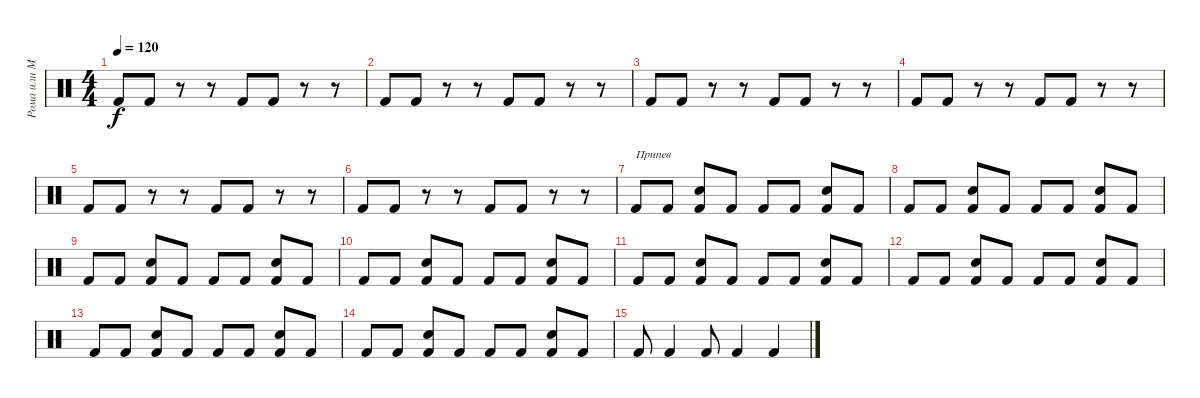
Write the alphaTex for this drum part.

\track ("Рома или Миша" "Рома или М") {instrument percussion}
\staff {score}
\articulation defaults
\ts (4 4)
\tempo 120
\clef neutral
\ks c "Kick (hit) 2".8{dy f} "Kick (hit) 2".8
r.8 r.8 "Kick (hit) 2".8 "Kick (hit) 2".8 r.8 r.8 |
"Kick (hit) 2".8 "Kick (hit) 2".8 r.8 r.8 "Kick (hit) 2".8 "Kick (hit) 2".8 r.8 r.8 |
"Kick (hit) 2".8 "Kick (hit) 2".8 r.8 r.8 "Kick (hit) 2".8 "Kick (hit) 2".8 r.8 r.8 |
"Kick (hit) 2".8 "Kick (hit) 2".8 r.8 r.8 "Kick (hit) 2".8 "Kick (hit) 2".8 r.8 r.8 |
"Kick (hit) 2".8 "Kick (hit) 2".8 r.8 r.8 "Kick (hit) 2".8 "Kick (hit) 2".8 r.8 r.8 |
"Kick (hit) 2".8 "Kick (hit) 2".8 r.8 r.8 "Kick (hit) 2".8 "Kick (hit) 2".8 r.8 r.8 |
"Kick (hit) 2".8{txt "Припев"} "Kick (hit) 2".8 ("Snare (hit) 2" "Kick (hit) 2").8 "Kick (hit) 2".8 "Kick (hit) 2".8 "Kick (hit) 2".8 ("Snare (hit) 2" "Kick (hit) 2").8 "Kick (hit) 2".8 |
"Kick (hit) 2".8 "Kick (hit) 2".8 ("Snare (hit) 2" "Kick (hit) 2").8 "Kick (hit) 2".8 "Kick (hit) 2".8 "Kick (hit) 2".8 ("Snare (hit) 2" "Kick (hit) 2").8 "Kick (hit) 2".8 |
"Kick (hit) 2".8 "Kick (hit) 2".8 ("Snare (hit) 2" "Kick (hit) 2").8 "Kick (hit) 2".8 "Kick (hit) 2".8 "Kick (hit) 2".8 ("Snare (hit) 2" "Kick (hit) 2").8 "Kick (hit) 2".8 |
"Kick (hit) 2".8 "Kick (hit) 2".8 ("Snare (hit) 2" "Kick (hit) 2").8 "Kick (hit) 2".8 "Kick (hit) 2".8 "Kick (hit) 2".8 ("Snare (hit) 2" "Kick (hit) 2").8 "Kick (hit) 2".8 |
"Kick (hit) 2".8 "Kick (hit) 2".8 ("Snare (hit) 2" "Kick (hit) 2").8 "Kick (hit) 2".8 "Kick (hit) 2".8 "Kick (hit) 2".8 ("Snare (hit) 2" "Kick (hit) 2").8 "Kick (hit) 2".8 |
"Kick (hit) 2".8 "Kick (hit) 2".8 ("Snare (hit) 2" "Kick (hit) 2").8 "Kick (hit) 2".8 "Kick (hit) 2".8 "Kick (hit) 2".8 ("Snare (hit) 2" "Kick (hit) 2").8 "Kick (hit) 2".8 |
"Kick (hit) 2".8 "Kick (hit) 2".8 ("Snare (hit) 2" "Kick (hit) 2").8 "Kick (hit) 2".8 "Kick (hit) 2".8 "Kick (hit) 2".8 ("Snare (hit) 2" "Kick (hit) 2").8 "Kick (hit) 2".8 |
"Kick (hit) 2".8 "Kick (hit) 2".8 ("Snare (hit) 2" "Kick (hit) 2").8 "Kick (hit) 2".8 "Kick (hit) 2".8 "Kick (hit) 2".8 ("Snare (hit) 2" "Kick (hit) 2").8 "Kick (hit) 2".8 |
"Kick (hit) 2".8 "Kick (hit) 2".4 "Kick (hit) 2".8 "Kick (hit) 2".4 "Kick (hit) 2".4
